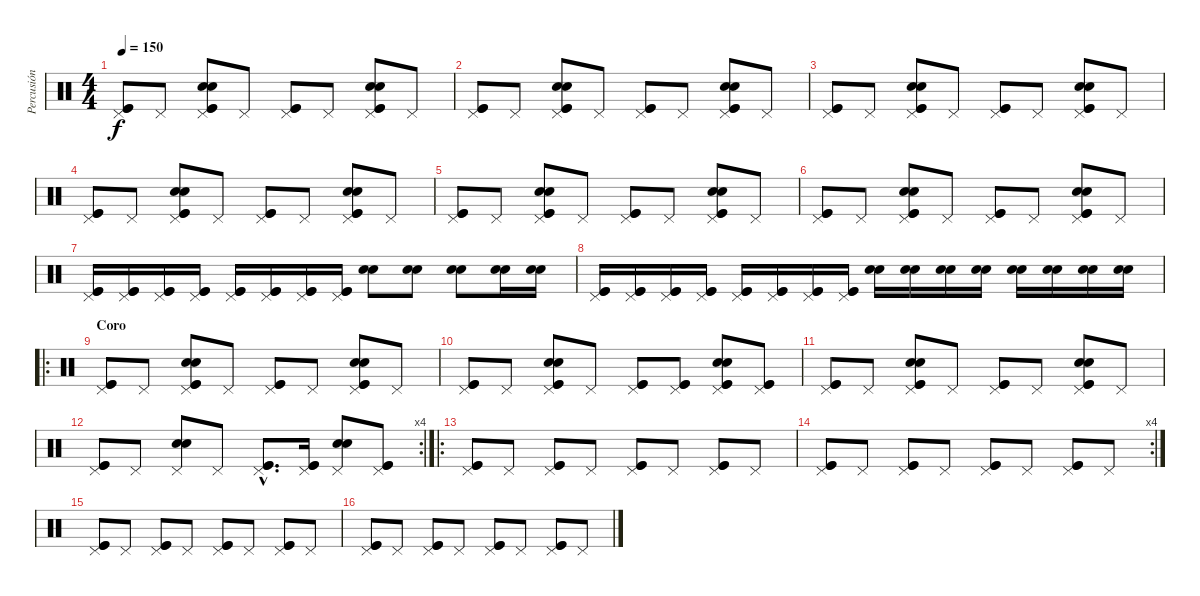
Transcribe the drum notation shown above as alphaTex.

\track ("Percusión" "Percusión") {instrument percussion}
\staff {score}
\articulation defaults
\ts (4 4)
\tempo 150
\clef neutral
\ks c
("Pedal Hi-Hat (hit)" "Kick (hit)" "Kick (hit)").8{dy f} "Pedal Hi-Hat (hit)".8 ("Pedal Hi-Hat (hit)" "Snare (hit) 2" "Snare (hit) 2" "Kick (hit)" "Kick (hit)").8 "Pedal Hi-Hat (hit)".8 ("Pedal Hi-Hat (hit)" "Kick (hit)" "Kick (hit)").8 "Pedal Hi-Hat (hit)".8 ("Pedal Hi-Hat (hit)" "Snare (hit) 2" "Snare (hit) 2" "Kick (hit)" "Kick (hit)").8 "Pedal Hi-Hat (hit)".8 |
("Pedal Hi-Hat (hit)" "Kick (hit)" "Kick (hit)").8 "Pedal Hi-Hat (hit)".8 ("Pedal Hi-Hat (hit)" "Snare (hit) 2" "Snare (hit) 2" "Kick (hit)" "Kick (hit)").8 "Pedal Hi-Hat (hit)".8 ("Pedal Hi-Hat (hit)" "Kick (hit)" "Kick (hit)").8 "Pedal Hi-Hat (hit)".8 ("Pedal Hi-Hat (hit)" "Snare (hit) 2" "Snare (hit) 2" "Kick (hit)" "Kick (hit)").8 "Pedal Hi-Hat (hit)".8 |
("Pedal Hi-Hat (hit)" "Kick (hit)" "Kick (hit)").8 "Pedal Hi-Hat (hit)".8 ("Pedal Hi-Hat (hit)" "Snare (hit) 2" "Snare (hit) 2" "Kick (hit)" "Kick (hit)").8 "Pedal Hi-Hat (hit)".8 ("Pedal Hi-Hat (hit)" "Kick (hit)" "Kick (hit)").8 "Pedal Hi-Hat (hit)".8 ("Pedal Hi-Hat (hit)" "Snare (hit) 2" "Snare (hit) 2" "Kick (hit)" "Kick (hit)").8 "Pedal Hi-Hat (hit)".8 |
("Pedal Hi-Hat (hit)" "Kick (hit)" "Kick (hit)").8 "Pedal Hi-Hat (hit)".8 ("Pedal Hi-Hat (hit)" "Snare (hit) 2" "Snare (hit) 2" "Kick (hit)" "Kick (hit)").8 "Pedal Hi-Hat (hit)".8 ("Pedal Hi-Hat (hit)" "Kick (hit)" "Kick (hit)").8 "Pedal Hi-Hat (hit)".8 ("Pedal Hi-Hat (hit)" "Snare (hit) 2" "Snare (hit) 2" "Kick (hit)" "Kick (hit)").8 "Pedal Hi-Hat (hit)".8 |
("Pedal Hi-Hat (hit)" "Kick (hit)" "Kick (hit)").8 "Pedal Hi-Hat (hit)".8 ("Pedal Hi-Hat (hit)" "Snare (hit) 2" "Snare (hit) 2" "Kick (hit)" "Kick (hit)").8 "Pedal Hi-Hat (hit)".8 ("Pedal Hi-Hat (hit)" "Kick (hit)" "Kick (hit)").8 "Pedal Hi-Hat (hit)".8 ("Pedal Hi-Hat (hit)" "Snare (hit) 2" "Snare (hit) 2" "Kick (hit)" "Kick (hit)").8 "Pedal Hi-Hat (hit)".8 |
("Pedal Hi-Hat (hit)" "Kick (hit)" "Kick (hit)").8 "Pedal Hi-Hat (hit)".8 ("Pedal Hi-Hat (hit)" "Snare (hit) 2" "Snare (hit) 2" "Kick (hit)" "Kick (hit)").8 "Pedal Hi-Hat (hit)".8 ("Pedal Hi-Hat (hit)" "Kick (hit)" "Kick (hit)").8 "Pedal Hi-Hat (hit)".8 ("Pedal Hi-Hat (hit)" "Snare (hit) 2" "Snare (hit) 2" "Kick (hit)" "Kick (hit)").8 "Pedal Hi-Hat (hit)".8 |
("Pedal Hi-Hat (hit)" "Kick (hit)" "Kick (hit)").16 ("Pedal Hi-Hat (hit)" "Kick (hit)" "Kick (hit)").16 ("Pedal Hi-Hat (hit)" "Kick (hit)" "Kick (hit)").16 ("Pedal Hi-Hat (hit)" "Kick (hit)" "Kick (hit)").16 ("Pedal Hi-Hat (hit)" "Kick (hit)" "Kick (hit)").16 ("Pedal Hi-Hat (hit)" "Kick (hit)" "Kick (hit)").16 ("Pedal Hi-Hat (hit)" "Kick (hit)" "Kick (hit)").16 ("Pedal Hi-Hat (hit)" "Kick (hit)" "Kick (hit)").16 ("Snare (hit) 2" "Snare (hit) 2").8 ("Snare (hit) 2" "Snare (hit) 2").8 ("Snare (hit) 2" "Snare (hit) 2").8 ("Snare (hit) 2" "Snare (hit) 2").16 ("Snare (hit) 2" "Snare (hit) 2").16 |
("Pedal Hi-Hat (hit)" "Kick (hit)" "Kick (hit)").16 ("Pedal Hi-Hat (hit)" "Kick (hit)" "Kick (hit)").16 ("Pedal Hi-Hat (hit)" "Kick (hit)" "Kick (hit)").16 ("Pedal Hi-Hat (hit)" "Kick (hit)" "Kick (hit)").16 ("Pedal Hi-Hat (hit)" "Kick (hit)" "Kick (hit)").16 ("Pedal Hi-Hat (hit)" "Kick (hit)" "Kick (hit)").16 ("Pedal Hi-Hat (hit)" "Kick (hit)" "Kick (hit)").16 ("Pedal Hi-Hat (hit)" "Kick (hit)" "Kick (hit)").16 ("Snare (hit) 2" "Snare (hit) 2").16 ("Snare (hit) 2" "Snare (hit) 2").16 ("Snare (hit) 2" "Snare (hit) 2").16 ("Snare (hit) 2" "Snare (hit) 2").16 ("Snare (hit) 2" "Snare (hit) 2").16 ("Snare (hit) 2" "Snare (hit) 2").16 ("Snare (hit) 2" "Snare (hit) 2").16 ("Snare (hit) 2" "Snare (hit) 2").16 |
\ro
\section ("" "Coro")
("Pedal Hi-Hat (hit)" "Kick (hit)" "Kick (hit)").8 "Pedal Hi-Hat (hit)".8 ("Pedal Hi-Hat (hit)" "Snare (hit) 2" "Snare (hit) 2" "Kick (hit)" "Kick (hit)").8 "Pedal Hi-Hat (hit)".8 ("Pedal Hi-Hat (hit)" "Kick (hit)" "Kick (hit)").8 "Pedal Hi-Hat (hit)".8 ("Pedal Hi-Hat (hit)" "Snare (hit) 2" "Snare (hit) 2" "Kick (hit)" "Kick (hit)").8 "Pedal Hi-Hat (hit)".8 |
("Pedal Hi-Hat (hit)" "Kick (hit)" "Kick (hit)").8 "Pedal Hi-Hat (hit)".8 ("Pedal Hi-Hat (hit)" "Snare (hit) 2" "Snare (hit) 2" "Kick (hit)" "Kick (hit)").8 "Pedal Hi-Hat (hit)".8 ("Pedal Hi-Hat (hit)" "Kick (hit)" "Kick (hit)").8 ("Pedal Hi-Hat (hit)" "Kick (hit)" "Kick (hit)").8 ("Pedal Hi-Hat (hit)" "Snare (hit) 2" "Snare (hit) 2" "Kick (hit)" "Kick (hit)").8 ("Pedal Hi-Hat (hit)" "Kick (hit)" "Kick (hit)").8 |
("Pedal Hi-Hat (hit)" "Kick (hit)" "Kick (hit)").8 "Pedal Hi-Hat (hit)".8 ("Pedal Hi-Hat (hit)" "Snare (hit) 2" "Snare (hit) 2" "Kick (hit)" "Kick (hit)").8 "Pedal Hi-Hat (hit)".8 ("Pedal Hi-Hat (hit)" "Kick (hit)" "Kick (hit)").8 "Pedal Hi-Hat (hit)".8 ("Pedal Hi-Hat (hit)" "Snare (hit) 2" "Snare (hit) 2" "Kick (hit)" "Kick (hit)").8 "Pedal Hi-Hat (hit)".8 |
\rc 4
("Pedal Hi-Hat (hit)" "Kick (hit)" "Kick (hit)").8 "Pedal Hi-Hat (hit)".8 ("Pedal Hi-Hat (hit)" "Snare (hit) 2" "Snare (hit) 2").8 "Pedal Hi-Hat (hit)".8 ("Pedal Hi-Hat (hit)"{hac} "Kick (hit)"{hac} "Kick (hit)"{hac}).8{d} ("Pedal Hi-Hat (hit)" "Kick (hit)" "Kick (hit)").16 ("Pedal Hi-Hat (hit)" "Snare (hit) 2" "Snare (hit) 2").8 ("Pedal Hi-Hat (hit)" "Kick (hit)" "Kick (hit)").8 |
\ro
("Pedal Hi-Hat (hit)" "Kick (hit)" "Kick (hit)").8 "Pedal Hi-Hat (hit)".8 ("Pedal Hi-Hat (hit)" "Kick (hit)" "Kick (hit)").8 "Pedal Hi-Hat (hit)".8 ("Pedal Hi-Hat (hit)" "Kick (hit)" "Kick (hit)").8 "Pedal Hi-Hat (hit)".8 ("Pedal Hi-Hat (hit)" "Kick (hit)" "Kick (hit)").8 "Pedal Hi-Hat (hit)".8 |
\rc 4
("Pedal Hi-Hat (hit)" "Kick (hit)" "Kick (hit)").8 "Pedal Hi-Hat (hit)".8 ("Pedal Hi-Hat (hit)" "Kick (hit)" "Kick (hit)").8 "Pedal Hi-Hat (hit)".8 ("Pedal Hi-Hat (hit)" "Kick (hit)" "Kick (hit)").8 "Pedal Hi-Hat (hit)".8 ("Pedal Hi-Hat (hit)" "Kick (hit)" "Kick (hit)").8 "Pedal Hi-Hat (hit)".8 |
("Pedal Hi-Hat (hit)" "Kick (hit)" "Kick (hit)").8 "Pedal Hi-Hat (hit)".8 ("Pedal Hi-Hat (hit)" "Kick (hit)" "Kick (hit)").8 "Pedal Hi-Hat (hit)".8 ("Pedal Hi-Hat (hit)" "Kick (hit)" "Kick (hit)").8 "Pedal Hi-Hat (hit)".8 ("Pedal Hi-Hat (hit)" "Kick (hit)" "Kick (hit)").8 "Pedal Hi-Hat (hit)".8 |
("Pedal Hi-Hat (hit)" "Kick (hit)" "Kick (hit)").8 "Pedal Hi-Hat (hit)".8 ("Pedal Hi-Hat (hit)" "Kick (hit)" "Kick (hit)").8 "Pedal Hi-Hat (hit)".8 ("Pedal Hi-Hat (hit)" "Kick (hit)" "Kick (hit)").8 "Pedal Hi-Hat (hit)".8 ("Pedal Hi-Hat (hit)" "Kick (hit)" "Kick (hit)").8 "Pedal Hi-Hat (hit)".8
